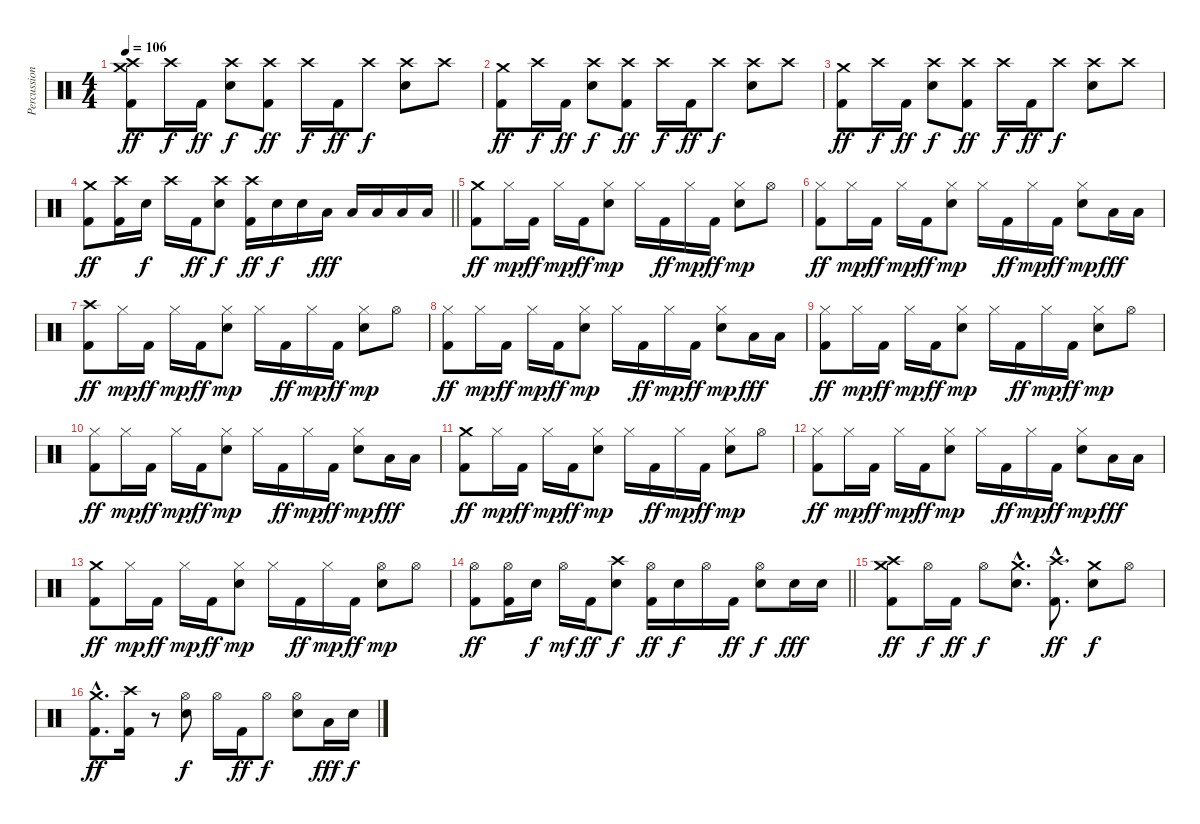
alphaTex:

\track ("Percussion" "Percussion") {instrument percussion}
\staff {score}
\articulation defaults
\ts (4 4)
\tempo 106
\clef neutral
\ks c
("Crash medium (hit)" "Crash high (hit)" "Kick (hit) 2").8{dy ff} "Crash high (hit)".16{dy f} "Kick (hit) 2".16{dy ff} ("Crash high (hit)" "Electric Snare (hit)").8{dy f} ("Crash high (hit)" "Kick (hit) 2").8{dy ff} "Crash high (hit)".16{dy f} "Kick (hit) 2".16{dy ff} "Crash high (hit)".8{dy f} ("Crash high (hit)" "Electric Snare (hit)").8 "Crash high (hit)".8 |
("Crash medium (hit)" "Kick (hit) 2").8{dy ff} "Crash high (hit)".16{dy f} "Kick (hit) 2".16{dy ff} ("Crash high (hit)" "Electric Snare (hit)").8{dy f} ("Crash high (hit)" "Kick (hit) 2").8{dy ff} "Crash high (hit)".16{dy f} "Kick (hit) 2".16{dy ff} "Crash high (hit)".8{dy f} ("Crash high (hit)" "Electric Snare (hit)").8 "Crash high (hit)".8 |
("Crash medium (hit)" "Kick (hit) 2").8{dy ff} "Crash high (hit)".16{dy f} "Kick (hit) 2".16{dy ff} ("Crash high (hit)" "Electric Snare (hit)").8{dy f} ("Crash high (hit)" "Kick (hit) 2").8{dy ff} "Crash high (hit)".16{dy f} "Kick (hit) 2".16{dy ff} "Crash high (hit)".8{dy f} ("Crash high (hit)" "Electric Snare (hit)").8 "Crash high (hit)".8 |
\barLineRight lightlight
("Crash medium (hit)" "Kick (hit) 2").8{dy ff} ("Crash high (hit)" "Kick (hit) 2").16 "Electric Snare (hit)".16{dy f} "Crash high (hit)".16 "Kick (hit) 2".16{dy ff} ("Crash high (hit)" "Electric Snare (hit)").8{dy f} ("Crash high (hit)" "Kick (hit) 2").16{dy ff} "Electric Snare (hit)".16{dy f} "Electric Snare (hit)".16 "Low Tom (hit)".16{dy fff} "Low Tom (hit)".16 "Low Tom (hit)".16 "Low Floor Tom (hit)".16 "Low Floor Tom (hit)".16 |
("Crash medium (hit)" "Kick (hit) 2").8{dy ff} "Hi-Hat (closed)".16{dy mp} "Kick (hit) 2".16{dy ff} "Hi-Hat (closed)".16{dy mp} "Kick (hit) 2".16{dy ff} ("Hi-Hat (closed)" "Electric Snare (hit)").8{dy mp} "Hi-Hat (closed)".16 "Kick (hit) 2".16{dy ff} "Hi-Hat (closed)".16{dy mp} "Kick (hit) 2".16{dy ff} ("Hi-Hat (closed)" "Electric Snare (hit)").8{dy mp} "Hi-Hat (open)".8 |
("Hi-Hat (closed)" "Kick (hit) 2").8{dy ff} "Hi-Hat (closed)".16{dy mp} "Kick (hit) 2".16{dy ff} "Hi-Hat (closed)".16{dy mp} "Kick (hit) 2".16{dy ff} ("Hi-Hat (closed)" "Electric Snare (hit)").8{dy mp} "Hi-Hat (closed)".16 "Kick (hit) 2".16{dy ff} "Hi-Hat (closed)".16{dy mp} "Kick (hit) 2".16{dy ff} ("Hi-Hat (closed)" "Electric Snare (hit)").8{dy mp} "Low Tom (hit)".16{dy fff} "Low Tom (hit)".16 |
("Crash high (hit)" "Kick (hit) 2").8{dy ff} "Hi-Hat (closed)".16{dy mp} "Kick (hit) 2".16{dy ff} "Hi-Hat (closed)".16{dy mp} "Kick (hit) 2".16{dy ff} ("Hi-Hat (closed)" "Electric Snare (hit)").8{dy mp} "Hi-Hat (closed)".16 "Kick (hit) 2".16{dy ff} "Hi-Hat (closed)".16{dy mp} "Kick (hit) 2".16{dy ff} ("Hi-Hat (closed)" "Electric Snare (hit)").8{dy mp} "Hi-Hat (open)".8 |
("Hi-Hat (closed)" "Kick (hit) 2").8{dy ff} "Hi-Hat (closed)".16{dy mp} "Kick (hit) 2".16{dy ff} "Hi-Hat (closed)".16{dy mp} "Kick (hit) 2".16{dy ff} ("Hi-Hat (closed)" "Electric Snare (hit)").8{dy mp} "Hi-Hat (closed)".16 "Kick (hit) 2".16{dy ff} "Hi-Hat (closed)".16{dy mp} "Kick (hit) 2".16{dy ff} ("Hi-Hat (closed)" "Electric Snare (hit)").8{dy mp} "Low Tom (hit)".16{dy fff} "Low Tom (hit)".16 |
("Hi-Hat (closed)" "Kick (hit) 2").8{dy ff} "Hi-Hat (closed)".16{dy mp} "Kick (hit) 2".16{dy ff} "Hi-Hat (closed)".16{dy mp} "Kick (hit) 2".16{dy ff} ("Hi-Hat (closed)" "Electric Snare (hit)").8{dy mp} "Hi-Hat (closed)".16 "Kick (hit) 2".16{dy ff} "Hi-Hat (closed)".16{dy mp} "Kick (hit) 2".16{dy ff} ("Hi-Hat (closed)" "Electric Snare (hit)").8{dy mp} "Hi-Hat (open)".8 |
("Hi-Hat (closed)" "Kick (hit) 2").8{dy ff} "Hi-Hat (closed)".16{dy mp} "Kick (hit) 2".16{dy ff} "Hi-Hat (closed)".16{dy mp} "Kick (hit) 2".16{dy ff} ("Hi-Hat (closed)" "Electric Snare (hit)").8{dy mp} "Hi-Hat (closed)".16 "Kick (hit) 2".16{dy ff} "Hi-Hat (closed)".16{dy mp} "Kick (hit) 2".16{dy ff} ("Hi-Hat (closed)" "Electric Snare (hit)").8{dy mp} "Low Tom (hit)".16{dy fff} "Low Tom (hit)".16 |
("Crash medium (hit)" "Kick (hit) 2").8{dy ff} "Hi-Hat (closed)".16{dy mp} "Kick (hit) 2".16{dy ff} "Hi-Hat (closed)".16{dy mp} "Kick (hit) 2".16{dy ff} ("Hi-Hat (closed)" "Electric Snare (hit)").8{dy mp} "Hi-Hat (closed)".16 "Kick (hit) 2".16{dy ff} "Hi-Hat (closed)".16{dy mp} "Kick (hit) 2".16{dy ff} ("Hi-Hat (closed)" "Electric Snare (hit)").8{dy mp} "Hi-Hat (open)".8 |
("Hi-Hat (closed)" "Kick (hit) 2").8{dy ff} "Hi-Hat (closed)".16{dy mp} "Kick (hit) 2".16{dy ff} "Hi-Hat (closed)".16{dy mp} "Kick (hit) 2".16{dy ff} ("Hi-Hat (closed)" "Electric Snare (hit)").8{dy mp} "Hi-Hat (closed)".16 "Kick (hit) 2".16{dy ff} "Hi-Hat (closed)".16{dy mp} "Kick (hit) 2".16{dy ff} ("Hi-Hat (closed)" "Electric Snare (hit)").8{dy mp} "Low Tom (hit)".16{dy fff} "Low Tom (hit)".16 |
("Crash medium (hit)" "Kick (hit) 2").8{dy ff} "Hi-Hat (closed)".16{dy mp} "Kick (hit) 2".16{dy ff} "Hi-Hat (closed)".16{dy mp} "Kick (hit) 2".16{dy ff} ("Hi-Hat (closed)" "Electric Snare (hit)").8{dy mp} "Hi-Hat (closed)".16 "Kick (hit) 2".16{dy ff} "Hi-Hat (closed)".16{dy mp} "Kick (hit) 2".16{dy ff} ("Hi-Hat (open)" "Electric Snare (hit)").8{dy mp} "Hi-Hat (open)".8 |
\barLineRight lightlight
("Hi-Hat (open)" "Kick (hit) 2").8{dy ff} ("Hi-Hat (open)" "Kick (hit) 2").16 "Electric Snare (hit)".16{dy f} "Hi-Hat (open)".16{dy mf} "Kick (hit) 2".16{dy ff} ("Crash high (hit)" "Electric Snare (hit)").8{dy f} ("Hi-Hat (open)" "Kick (hit) 2").16{dy ff} "Electric Snare (hit)".16{dy f} "Hi-Hat (open)".16 "Kick (hit) 2".16{dy ff} ("Hi-Hat (open)" "Electric Snare (hit)").8{dy f} "Electric Snare (hit)".16{dy fff} "Electric Snare (hit)".16 |
("Crash medium (hit)" "Crash high (hit)" "Kick (hit) 2").8{dy ff} "Hi-Hat (open)".16{dy f} "Kick (hit) 2".16{dy ff} "Hi-Hat (open)".8{dy f} ("Crash medium (hit)"{hac} "Electric Snare (hit)"{hac}).8{d} ("Crash high (hit)"{hac} "Kick (hit) 2"{hac}).8{d dy ff} ("Crash medium (hit)" "Electric Snare (hit)").8{dy f} "Hi-Hat (open)".8 |
("Crash medium (hit)"{hac} "Kick (hit) 2"{hac}).8{d dy ff} ("Crash high (hit)" "Kick (hit) 2").16 r.8 ("Hi-Hat (open)" "Electric Snare (hit)").8{dy f} "Hi-Hat (open)".16 "Kick (hit) 2".16{dy ff} "Hi-Hat (open)".8{dy f} ("Hi-Hat (open)" "Electric Snare (hit)").8 "Low Floor Tom (hit)".16{dy fff} "Electric Snare (hit)".16{dy f}
